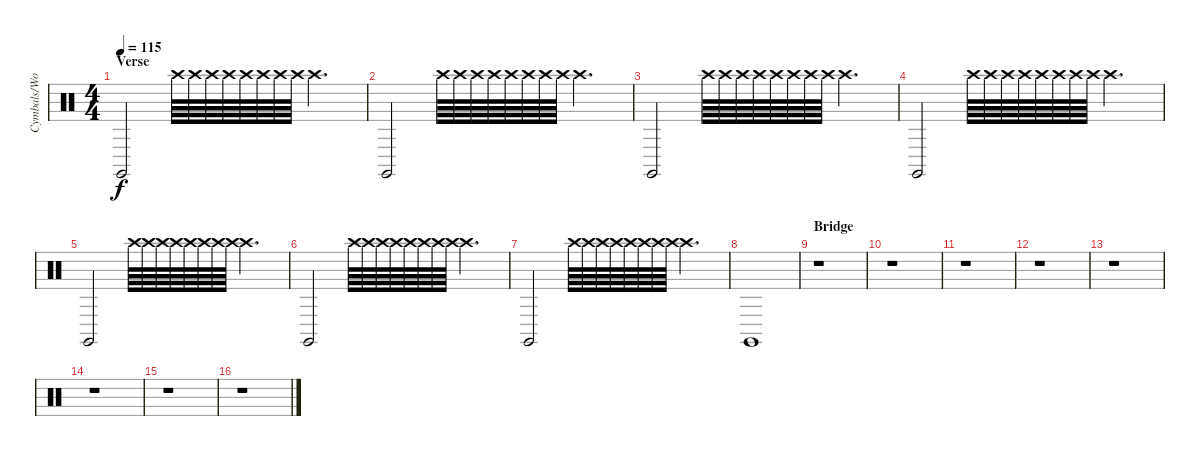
\track ("Cymbals/Woodblock" "Cymbals/Wo") {instrument percussion}
\staff {score}
\articulation defaults
\ts (4 4)
\section ("" "Verse")
\tempo 115
\clef neutral
\ks c "Claves (hit)".2{dy f} "Crash high (hit)".64 "Crash high (hit)".64 "Crash high (hit)".64 "Crash high (hit)".64 "Crash high (hit)".64 "Crash high (hit)".64 "Crash high (hit)".64 "Crash high (hit)".64 "Crash high (hit)".4{d}
|
"Claves (hit)".2 "Crash high (hit)".64 "Crash high (hit)".64 "Crash high (hit)".64 "Crash high (hit)".64 "Crash high (hit)".64 "Crash high (hit)".64 "Crash high (hit)".64 "Crash high (hit)".64 "Crash high (hit)".4{d} |
"Claves (hit)".2 "Crash high (hit)".64 "Crash high (hit)".64 "Crash high (hit)".64 "Crash high (hit)".64 "Crash high (hit)".64 "Crash high (hit)".64 "Crash high (hit)".64 "Crash high (hit)".64 "Crash high (hit)".4{d} |
"Claves (hit)".2 "Crash high (hit)".64 "Crash high (hit)".64 "Crash high (hit)".64 "Crash high (hit)".64 "Crash high (hit)".64 "Crash high (hit)".64 "Crash high (hit)".64 "Crash high (hit)".64 "Crash high (hit)".4{d} |
"Claves (hit)".2 "Crash high (hit)".64 "Crash high (hit)".64 "Crash high (hit)".64 "Crash high (hit)".64 "Crash high (hit)".64 "Crash high (hit)".64 "Crash high (hit)".64 "Crash high (hit)".64 "Crash high (hit)".4{d} |
"Claves (hit)".2 "Crash high (hit)".64 "Crash high (hit)".64 "Crash high (hit)".64 "Crash high (hit)".64 "Crash high (hit)".64 "Crash high (hit)".64 "Crash high (hit)".64 "Crash high (hit)".64 "Crash high (hit)".4{d} |
"Claves (hit)".2 "Crash high (hit)".64 "Crash high (hit)".64 "Crash high (hit)".64 "Crash high (hit)".64 "Crash high (hit)".64 "Crash high (hit)".64 "Crash high (hit)".64 "Crash high (hit)".64 "Crash high (hit)".4{d} |
"Claves (hit)".1 |
\section ("" "Bridge")
r.1 |
r.1 |
r.1 |
r.1 |
r.1 |
r.1 |
r.1 |
r.1
